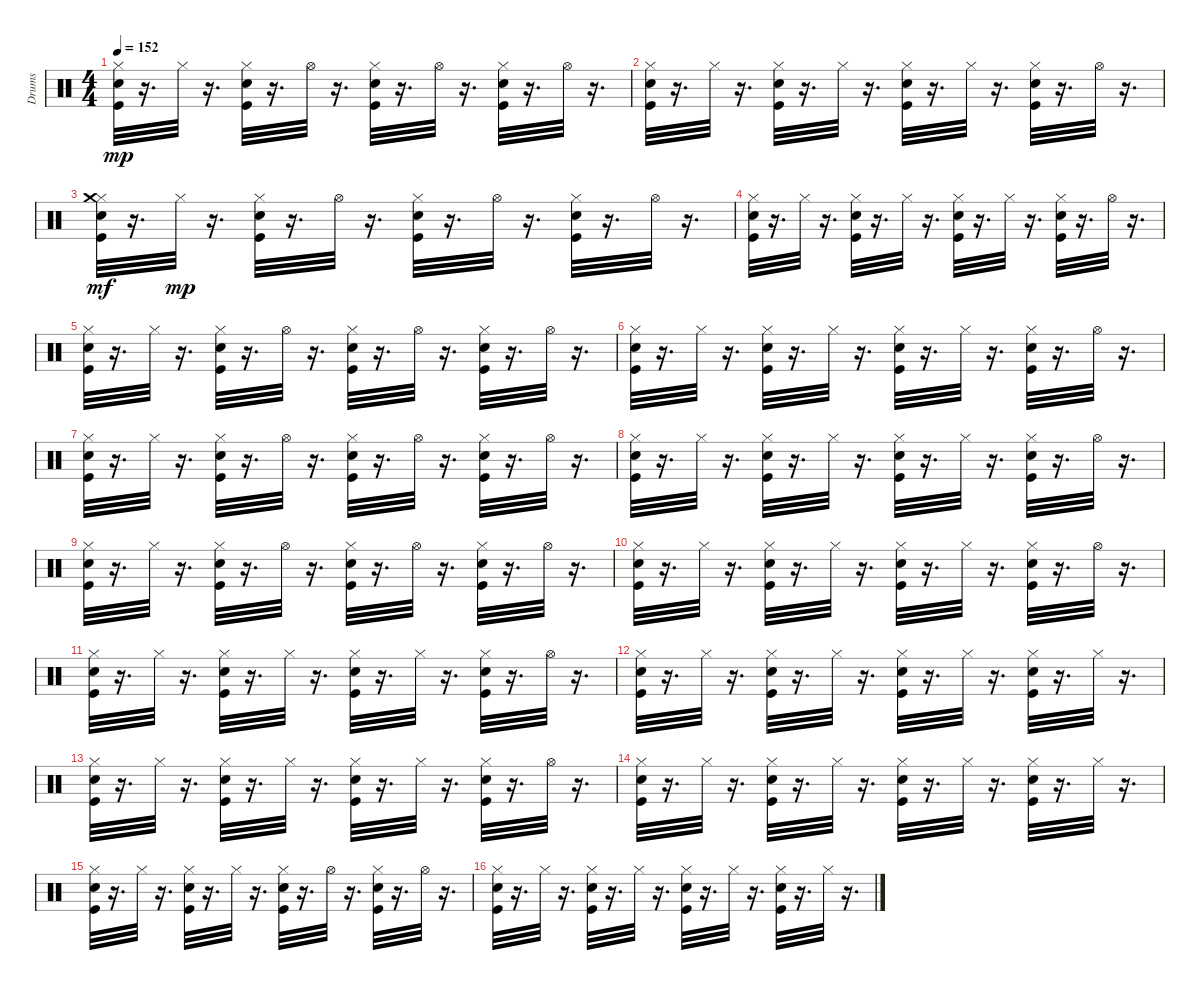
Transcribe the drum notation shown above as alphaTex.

\track ("Drums   " "Drums   ") {instrument percussion}
\staff {score}
\articulation defaults
\ts (4 4)
\tempo 152
\clef neutral
\ks c
("Snare (hit) 2" "Hi-Hat (closed)" "Kick (hit)").32{dy mp} r.16{d} "Hi-Hat (closed)".32 r.16{d} ("Snare (hit) 2" "Hi-Hat (closed)" "Kick (hit)").32 r.16{d} "Hi-Hat (open)".32 r.16{d} ("Snare (hit) 2" "Hi-Hat (closed)" "Kick (hit)").32 r.16{d} "Hi-Hat (open)".32 r.16{d} ("Snare (hit) 2" "Hi-Hat (closed)" "Kick (hit)").32 r.16{d} "Hi-Hat (open)".32 r.16{d} |
("Snare (hit) 2" "Hi-Hat (closed)" "Kick (hit)").32 r.16{d} "Hi-Hat (closed)".32 r.16{d} ("Snare (hit) 2" "Hi-Hat (closed)" "Kick (hit)").32 r.16{d} "Hi-Hat (closed)".32 r.16{d} ("Snare (hit) 2" "Hi-Hat (closed)" "Kick (hit)").32 r.16{d} "Hi-Hat (closed)".32 r.16{d} ("Snare (hit) 2" "Hi-Hat (closed)" "Kick (hit)").32 r.16{d} "Hi-Hat (open)".32 r.16{d} |
("Snare (hit) 2" "Hi-Hat (closed)" "Kick (hit)" "Crash medium (hit)").32{dy mf} r.16{d} "Hi-Hat (closed)".32{dy mp} r.16{d} ("Snare (hit) 2" "Hi-Hat (closed)" "Kick (hit)").32 r.16{d} "Hi-Hat (open)".32 r.16{d} ("Snare (hit) 2" "Hi-Hat (closed)" "Kick (hit)").32 r.16{d} "Hi-Hat (open)".32 r.16{d} ("Snare (hit) 2" "Hi-Hat (closed)" "Kick (hit)").32 r.16{d} "Hi-Hat (open)".32 r.16{d} |
("Snare (hit) 2" "Hi-Hat (closed)" "Kick (hit)").32 r.16{d} "Hi-Hat (closed)".32 r.16{d} ("Snare (hit) 2" "Hi-Hat (closed)" "Kick (hit)").32 r.16{d} "Hi-Hat (closed)".32 r.16{d} ("Snare (hit) 2" "Hi-Hat (closed)" "Kick (hit)").32 r.16{d} "Hi-Hat (closed)".32 r.16{d} ("Snare (hit) 2" "Hi-Hat (closed)" "Kick (hit)").32 r.16{d} "Hi-Hat (open)".32 r.16{d} |
("Snare (hit) 2" "Hi-Hat (closed)" "Kick (hit)").32 r.16{d} "Hi-Hat (closed)".32 r.16{d} ("Snare (hit) 2" "Hi-Hat (closed)" "Kick (hit)").32 r.16{d} "Hi-Hat (open)".32 r.16{d} ("Snare (hit) 2" "Hi-Hat (closed)" "Kick (hit)").32 r.16{d} "Hi-Hat (open)".32 r.16{d} ("Snare (hit) 2" "Hi-Hat (closed)" "Kick (hit)").32 r.16{d} "Hi-Hat (open)".32 r.16{d} |
("Snare (hit) 2" "Hi-Hat (closed)" "Kick (hit)").32 r.16{d} "Hi-Hat (closed)".32 r.16{d} ("Snare (hit) 2" "Hi-Hat (closed)" "Kick (hit)").32 r.16{d} "Hi-Hat (closed)".32 r.16{d} ("Snare (hit) 2" "Hi-Hat (closed)" "Kick (hit)").32 r.16{d} "Hi-Hat (closed)".32 r.16{d} ("Snare (hit) 2" "Hi-Hat (closed)" "Kick (hit)").32 r.16{d} "Hi-Hat (open)".32 r.16{d} |
("Snare (hit) 2" "Hi-Hat (closed)" "Kick (hit)").32 r.16{d} "Hi-Hat (closed)".32 r.16{d} ("Snare (hit) 2" "Hi-Hat (closed)" "Kick (hit)").32 r.16{d} "Hi-Hat (open)".32 r.16{d} ("Snare (hit) 2" "Hi-Hat (closed)" "Kick (hit)").32 r.16{d} "Hi-Hat (open)".32 r.16{d} ("Snare (hit) 2" "Hi-Hat (closed)" "Kick (hit)").32 r.16{d} "Hi-Hat (open)".32 r.16{d} |
("Snare (hit) 2" "Hi-Hat (closed)" "Kick (hit)").32 r.16{d} "Hi-Hat (closed)".32 r.16{d} ("Snare (hit) 2" "Hi-Hat (closed)" "Kick (hit)").32 r.16{d} "Hi-Hat (closed)".32 r.16{d} ("Snare (hit) 2" "Hi-Hat (closed)" "Kick (hit)").32 r.16{d} "Hi-Hat (closed)".32 r.16{d} ("Snare (hit) 2" "Hi-Hat (closed)" "Kick (hit)").32 r.16{d} "Hi-Hat (open)".32 r.16{d} |
("Snare (hit) 2" "Hi-Hat (closed)" "Kick (hit)").32 r.16{d} "Hi-Hat (closed)".32 r.16{d} ("Snare (hit) 2" "Hi-Hat (closed)" "Kick (hit)").32 r.16{d} "Hi-Hat (open)".32 r.16{d} ("Snare (hit) 2" "Hi-Hat (closed)" "Kick (hit)").32 r.16{d} "Hi-Hat (open)".32 r.16{d} ("Snare (hit) 2" "Hi-Hat (closed)" "Kick (hit)").32 r.16{d} "Hi-Hat (open)".32 r.16{d} |
("Snare (hit) 2" "Hi-Hat (closed)" "Kick (hit)").32 r.16{d} "Hi-Hat (closed)".32 r.16{d} ("Snare (hit) 2" "Hi-Hat (closed)" "Kick (hit)").32 r.16{d} "Hi-Hat (closed)".32 r.16{d} ("Snare (hit) 2" "Hi-Hat (closed)" "Kick (hit)").32 r.16{d} "Hi-Hat (closed)".32 r.16{d} ("Snare (hit) 2" "Hi-Hat (closed)" "Kick (hit)").32 r.16{d} "Hi-Hat (open)".32 r.16{d} |
("Snare (hit) 2" "Hi-Hat (closed)" "Kick (hit)").32 r.16{d} "Hi-Hat (closed)".32 r.16{d} ("Snare (hit) 2" "Hi-Hat (closed)" "Kick (hit)").32 r.16{d} "Hi-Hat (closed)".32 r.16{d} ("Snare (hit) 2" "Hi-Hat (closed)" "Kick (hit)").32 r.16{d} "Hi-Hat (closed)".32 r.16{d} ("Snare (hit) 2" "Hi-Hat (closed)" "Kick (hit)").32 r.16{d} "Hi-Hat (open)".32 r.16{d} |
("Snare (hit) 2" "Hi-Hat (closed)" "Kick (hit)").32 r.16{d} "Hi-Hat (closed)".32 r.16{d} ("Snare (hit) 2" "Hi-Hat (closed)" "Kick (hit)").32 r.16{d} "Hi-Hat (closed)".32 r.16{d} ("Snare (hit) 2" "Hi-Hat (closed)" "Kick (hit)").32 r.16{d} "Hi-Hat (closed)".32 r.16{d} ("Snare (hit) 2" "Hi-Hat (closed)" "Kick (hit)").32 r.16{d} "Hi-Hat (closed)".32 r.16{d} |
("Snare (hit) 2" "Hi-Hat (closed)" "Kick (hit)").32 r.16{d} "Hi-Hat (closed)".32 r.16{d} ("Snare (hit) 2" "Hi-Hat (closed)" "Kick (hit)").32 r.16{d} "Hi-Hat (closed)".32 r.16{d} ("Snare (hit) 2" "Hi-Hat (closed)" "Kick (hit)").32 r.16{d} "Hi-Hat (closed)".32 r.16{d} ("Snare (hit) 2" "Hi-Hat (closed)" "Kick (hit)").32 r.16{d} "Hi-Hat (open)".32 r.16{d} |
("Snare (hit) 2" "Hi-Hat (closed)" "Kick (hit)").32 r.16{d} "Hi-Hat (closed)".32 r.16{d} ("Snare (hit) 2" "Hi-Hat (closed)" "Kick (hit)").32 r.16{d} "Hi-Hat (closed)".32 r.16{d} ("Snare (hit) 2" "Hi-Hat (closed)" "Kick (hit)").32 r.16{d} "Hi-Hat (closed)".32 r.16{d} ("Snare (hit) 2" "Hi-Hat (closed)" "Kick (hit)").32 r.16{d} "Hi-Hat (closed)".32 r.16{d} |
("Snare (hit) 2" "Hi-Hat (closed)" "Kick (hit)").32 r.16{d} "Hi-Hat (closed)".32 r.16{d} ("Snare (hit) 2" "Hi-Hat (closed)" "Kick (hit)").32 r.16{d} "Hi-Hat (closed)".32 r.16{d} ("Snare (hit) 2" "Hi-Hat (closed)" "Kick (hit)").32 r.16{d} "Hi-Hat (open)".32 r.16{d} ("Snare (hit) 2" "Hi-Hat (closed)" "Kick (hit)").32 r.16{d} "Hi-Hat (open)".32 r.16{d} |
("Snare (hit) 2" "Hi-Hat (closed)" "Kick (hit)").32 r.16{d} "Hi-Hat (closed)".32 r.16{d} ("Snare (hit) 2" "Hi-Hat (closed)" "Kick (hit)").32 r.16{d} "Hi-Hat (closed)".32 r.16{d} ("Snare (hit) 2" "Hi-Hat (closed)" "Kick (hit)").32 r.16{d} "Hi-Hat (closed)".32 r.16{d} ("Snare (hit) 2" "Hi-Hat (closed)" "Kick (hit)").32 r.16{d} "Hi-Hat (closed)".32 r.16{d}
